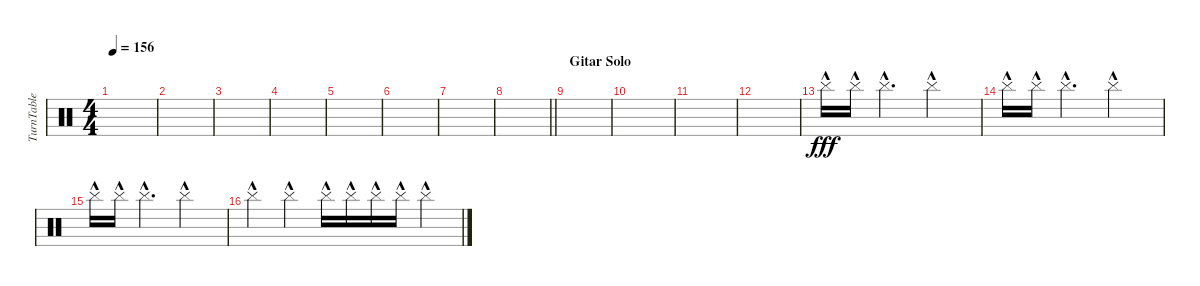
\track ("TurnTable" "TurnTable") {instrument percussion}
\staff {score}
\articulation defaults
\ts (4 4)
\tempo 156
\clef neutral
\ks c
|
|
|
|
|
|
|
\barLineRight lightlight
|
\section ("" "Gitar Solo")
|
|
|
|
"Cymbal (hit)"{hac}.16{dy fff} "Cymbal (hit)"{hac}.16 "Cymbal (hit)"{hac}.4{d} "Cymbal (hit)"{hac}.2 |
"Cymbal (hit)"{hac}.16 "Cymbal (hit)"{hac}.16 "Cymbal (hit)"{hac}.4{d} "Cymbal (hit)"{hac}.2 |
"Cymbal (hit)"{hac}.16 "Cymbal (hit)"{hac}.16 "Cymbal (hit)"{hac}.4{d} "Cymbal (hit)"{hac}.2 |
"Cymbal (hit)"{hac}.4 "Cymbal (hit)"{hac}.4 "Cymbal (hit)"{hac}.16 "Cymbal (hit)"{hac}.16 "Cymbal (hit)"{hac}.16 "Cymbal (hit)"{hac}.16 "Cymbal (hit)"{hac}.4
